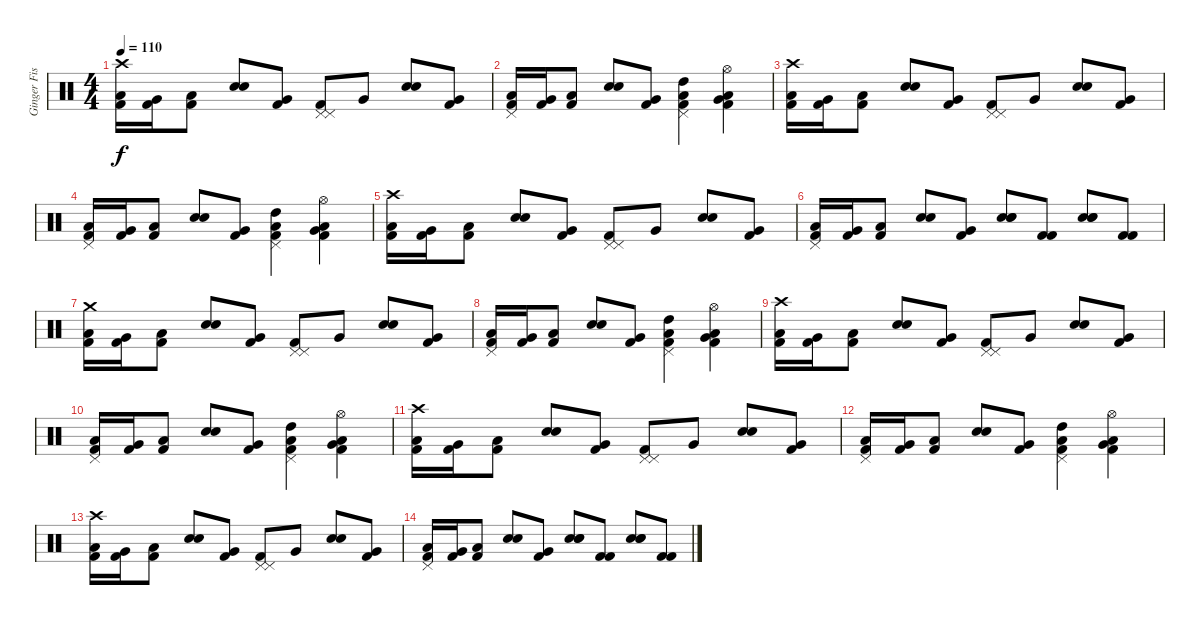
\track ("Ginger Fish" "Ginger Fis") {instrument percussion}
\staff {score}
\articulation defaults
\ts (4 4)
\tempo 110
\clef neutral
\ks c
("Crash high (hit)" "Low Tom (hit)" "Kick (hit) 2").16{dy f} ("Very Low Tom (hit)" "Kick (hit) 2").16 ("Low Tom (hit)" "Kick (hit) 2").8 ("Electric Snare (hit)" "Electric Snare (hit)").8 ("Very Low Tom (hit)" "Kick (hit) 2").8 ("Pedal Hi-Hat (hit)" "Pedal Hi-Hat (hit)" "Kick (hit) 2").8 "Very Low Tom (hit)".8 ("Electric Snare (hit)" "Electric Snare (hit)").8 ("Very Low Tom (hit)" "Kick (hit) 2").8 |
("Pedal Hi-Hat (hit)" "Low Tom (hit)" "Kick (hit) 2").16 ("Very Low Tom (hit)" "Kick (hit) 2").16 ("Low Tom (hit)" "Kick (hit) 2").8 ("Electric Snare (hit)" "Electric Snare (hit)").8 ("Very Low Tom (hit)" "Kick (hit) 2").8 ("Pedal Hi-Hat (hit)" "High Tom (hit)" "Low Tom (hit)" "Kick (hit) 2").4 ("Hi-Hat (open)" "Very Low Tom (hit)" "Low Tom (hit)" "Kick (hit) 2").4 |
("Crash high (hit)" "Low Tom (hit)" "Kick (hit) 2").16 ("Very Low Tom (hit)" "Kick (hit) 2").16 ("Low Tom (hit)" "Kick (hit) 2").8 ("Electric Snare (hit)" "Electric Snare (hit)").8 ("Very Low Tom (hit)" "Kick (hit) 2").8 ("Pedal Hi-Hat (hit)" "Pedal Hi-Hat (hit)" "Kick (hit) 2").8 "Very Low Tom (hit)".8 ("Electric Snare (hit)" "Electric Snare (hit)").8 ("Very Low Tom (hit)" "Kick (hit) 2").8 |
("Pedal Hi-Hat (hit)" "Low Tom (hit)" "Kick (hit) 2").16 ("Very Low Tom (hit)" "Kick (hit) 2").16 ("Low Tom (hit)" "Kick (hit) 2").8 ("Electric Snare (hit)" "Electric Snare (hit)").8 ("Very Low Tom (hit)" "Kick (hit) 2").8 ("Pedal Hi-Hat (hit)" "High Tom (hit)" "Low Tom (hit)" "Kick (hit) 2").4 ("Hi-Hat (open)" "Very Low Tom (hit)" "Low Tom (hit)" "Kick (hit) 2").4 |
("Crash high (hit)" "Low Tom (hit)" "Kick (hit) 2").16 ("Very Low Tom (hit)" "Kick (hit) 2").16 ("Low Tom (hit)" "Kick (hit) 2").8 ("Electric Snare (hit)" "Electric Snare (hit)").8 ("Very Low Tom (hit)" "Kick (hit) 2").8 ("Pedal Hi-Hat (hit)" "Pedal Hi-Hat (hit)" "Kick (hit) 2").8 "Very Low Tom (hit)".8 ("Electric Snare (hit)" "Electric Snare (hit)").8 ("Very Low Tom (hit)" "Kick (hit) 2").8 |
("Pedal Hi-Hat (hit)" "Low Tom (hit)" "Kick (hit) 2").16 ("Very Low Tom (hit)" "Kick (hit) 2").16 ("Low Tom (hit)" "Kick (hit) 2").8 ("Electric Snare (hit)" "Electric Snare (hit)").8 ("Very Low Tom (hit)" "Kick (hit) 2").8 ("Electric Snare (hit)" "Electric Snare (hit)" "Electric Snare (hit)").8 ("Kick (hit) 2" "Kick (hit) 2").8 ("Electric Snare (hit)" "Electric Snare (hit)" "Electric Snare (hit)").8 ("Kick (hit) 2" "Kick (hit) 2").8 |
("Crash medium (hit)" "Low Tom (hit)" "Kick (hit) 2").16 ("Very Low Tom (hit)" "Kick (hit) 2").16 ("Low Tom (hit)" "Kick (hit) 2").8 ("Electric Snare (hit)" "Electric Snare (hit)").8 ("Very Low Tom (hit)" "Kick (hit) 2").8 ("Pedal Hi-Hat (hit)" "Pedal Hi-Hat (hit)" "Kick (hit) 2").8 "Very Low Tom (hit)".8 ("Electric Snare (hit)" "Electric Snare (hit)").8 ("Very Low Tom (hit)" "Kick (hit) 2").8 |
("Pedal Hi-Hat (hit)" "Low Tom (hit)" "Kick (hit) 2").16 ("Very Low Tom (hit)" "Kick (hit) 2").16 ("Low Tom (hit)" "Kick (hit) 2").8 ("Electric Snare (hit)" "Electric Snare (hit)").8 ("Very Low Tom (hit)" "Kick (hit) 2").8 ("Pedal Hi-Hat (hit)" "High Tom (hit)" "Low Tom (hit)" "Kick (hit) 2").4 ("Hi-Hat (open)" "Very Low Tom (hit)" "Low Tom (hit)" "Kick (hit) 2").4 |
("Crash high (hit)" "Low Tom (hit)" "Kick (hit) 2").16 ("Very Low Tom (hit)" "Kick (hit) 2").16 ("Low Tom (hit)" "Kick (hit) 2").8 ("Electric Snare (hit)" "Electric Snare (hit)").8 ("Very Low Tom (hit)" "Kick (hit) 2").8 ("Pedal Hi-Hat (hit)" "Pedal Hi-Hat (hit)" "Kick (hit) 2").8 "Very Low Tom (hit)".8 ("Electric Snare (hit)" "Electric Snare (hit)").8 ("Very Low Tom (hit)" "Kick (hit) 2").8 |
("Pedal Hi-Hat (hit)" "Low Tom (hit)" "Kick (hit) 2").16 ("Very Low Tom (hit)" "Kick (hit) 2").16 ("Low Tom (hit)" "Kick (hit) 2").8 ("Electric Snare (hit)" "Electric Snare (hit)").8 ("Very Low Tom (hit)" "Kick (hit) 2").8 ("Pedal Hi-Hat (hit)" "High Tom (hit)" "Low Tom (hit)" "Kick (hit) 2").4 ("Hi-Hat (open)" "Very Low Tom (hit)" "Low Tom (hit)" "Kick (hit) 2").4 |
("Crash high (hit)" "Low Tom (hit)" "Kick (hit) 2").16 ("Very Low Tom (hit)" "Kick (hit) 2").16 ("Low Tom (hit)" "Kick (hit) 2").8 ("Electric Snare (hit)" "Electric Snare (hit)").8 ("Very Low Tom (hit)" "Kick (hit) 2").8 ("Pedal Hi-Hat (hit)" "Pedal Hi-Hat (hit)" "Kick (hit) 2").8 "Very Low Tom (hit)".8 ("Electric Snare (hit)" "Electric Snare (hit)").8 ("Very Low Tom (hit)" "Kick (hit) 2").8 |
("Pedal Hi-Hat (hit)" "Low Tom (hit)" "Kick (hit) 2").16 ("Very Low Tom (hit)" "Kick (hit) 2").16 ("Low Tom (hit)" "Kick (hit) 2").8 ("Electric Snare (hit)" "Electric Snare (hit)").8 ("Very Low Tom (hit)" "Kick (hit) 2").8 ("Pedal Hi-Hat (hit)" "High Tom (hit)" "Low Tom (hit)" "Kick (hit) 2").4 ("Hi-Hat (open)" "Very Low Tom (hit)" "Low Tom (hit)" "Kick (hit) 2").4 |
("Crash high (hit)" "Low Tom (hit)" "Kick (hit) 2").16 ("Very Low Tom (hit)" "Kick (hit) 2").16 ("Low Tom (hit)" "Kick (hit) 2").8 ("Electric Snare (hit)" "Electric Snare (hit)").8 ("Very Low Tom (hit)" "Kick (hit) 2").8 ("Pedal Hi-Hat (hit)" "Pedal Hi-Hat (hit)" "Kick (hit) 2").8 "Very Low Tom (hit)".8 ("Electric Snare (hit)" "Electric Snare (hit)").8 ("Very Low Tom (hit)" "Kick (hit) 2").8 |
("Pedal Hi-Hat (hit)" "Low Tom (hit)" "Kick (hit) 2").16 ("Very Low Tom (hit)" "Kick (hit) 2").16 ("Low Tom (hit)" "Kick (hit) 2").8 ("Electric Snare (hit)" "Electric Snare (hit)").8 ("Very Low Tom (hit)" "Kick (hit) 2").8 ("Electric Snare (hit)" "Electric Snare (hit)" "Electric Snare (hit)").8 ("Kick (hit) 2" "Kick (hit) 2").8 ("Electric Snare (hit)" "Electric Snare (hit)" "Electric Snare (hit)").8 ("Kick (hit) 2" "Kick (hit) 2").8
